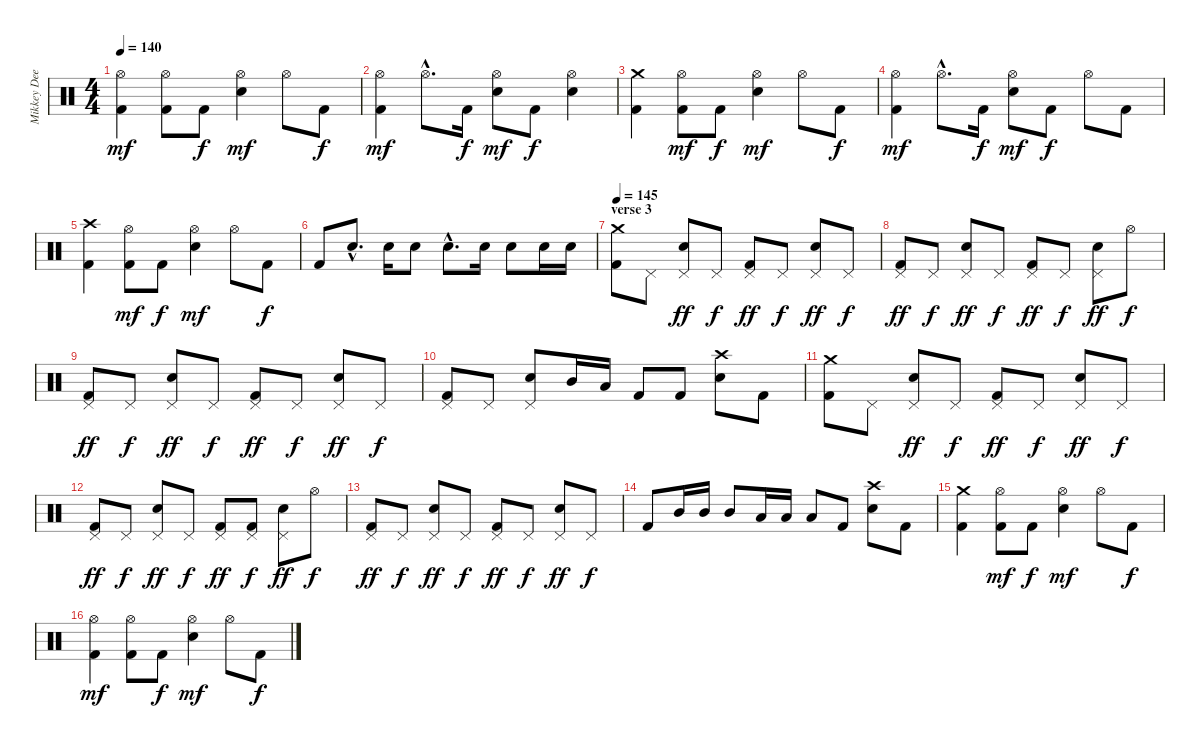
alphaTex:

\track ("Mikkey Dee" "Mikkey Dee") {instrument percussion}
\staff {score}
\articulation defaults
\ts (4 4)
\tempo 140
\clef neutral
\ks c
("Kick (hit) 2" "Hi-Hat (open)").4{dy mf} ("Kick (hit) 2" "Hi-Hat (open)").8 "Kick (hit) 2".8{dy f} ("Hi-Hat (open)" "Snare (hit) 2").4{dy mf} "Hi-Hat (open)".8 "Kick (hit) 2".8{dy f} |
("Kick (hit) 2" "Hi-Hat (open)").4{dy mf} "Hi-Hat (open)"{hac}.8{d} "Kick (hit) 2".16{dy f} ("Hi-Hat (open)" "Snare (hit) 2").8{dy mf} "Kick (hit) 2".8{dy f} ("Hi-Hat (open)" "Snare (hit) 2").4 |
("Kick (hit) 2" "Crash medium (hit)").4 ("Kick (hit) 2" "Hi-Hat (open)").8{dy mf} "Kick (hit) 2".8{dy f} ("Hi-Hat (open)" "Snare (hit) 2").4{dy mf} "Hi-Hat (open)".8 "Kick (hit) 2".8{dy f} |
("Kick (hit) 2" "Hi-Hat (open)").4{dy mf} "Hi-Hat (open)"{hac}.8{d} "Kick (hit) 2".16{dy f} ("Hi-Hat (open)" "Snare (hit) 2").8{dy mf} "Kick (hit) 2".8{dy f} "Hi-Hat (open)".8 "Kick (hit) 2".8 |
("Kick (hit) 2" "Crash high (hit)").4 ("Kick (hit) 2" "Hi-Hat (open)").8{dy mf} "Kick (hit) 2".8{dy f} ("Hi-Hat (open)" "Snare (hit) 2").4{dy mf} "Hi-Hat (open)".8 "Kick (hit) 2".8{dy f} |
"Kick (hit) 2".8 "Snare (hit) 2"{hac}.8{d} "Snare (hit) 2".16 "Snare (hit) 2".8 "Snare (hit) 2"{hac}.8{d} "Snare (hit) 2".16 "Snare (hit) 2".8 "Snare (hit) 2".16 "Snare (hit) 2".16 |
\section ("" "verse 3")
\tempo 145
("Kick (hit) 2" "Crash medium (hit)").8 "Pedal Hi-Hat (hit)".8 ("Pedal Hi-Hat (hit)" "Snare (hit) 2").8{dy ff} "Pedal Hi-Hat (hit)".8{dy f} ("Kick (hit) 2" "Pedal Hi-Hat (hit)").8{dy ff} "Pedal Hi-Hat (hit)".8{dy f} ("Pedal Hi-Hat (hit)" "Snare (hit) 2").8{dy ff} "Pedal Hi-Hat (hit)".8{dy f} |
("Kick (hit) 2" "Pedal Hi-Hat (hit)").8{dy ff} "Pedal Hi-Hat (hit)".8{dy f} ("Pedal Hi-Hat (hit)" "Snare (hit) 2").8{dy ff} "Pedal Hi-Hat (hit)".8{dy f} ("Kick (hit) 2" "Pedal Hi-Hat (hit)").8{dy ff} "Pedal Hi-Hat (hit)".8{dy f} ("Pedal Hi-Hat (hit)" "Snare (hit) 2").8{dy ff} "Hi-Hat (open)".8{dy f} |
("Kick (hit) 2" "Pedal Hi-Hat (hit)").8{dy ff} "Pedal Hi-Hat (hit)".8{dy f} ("Pedal Hi-Hat (hit)" "Snare (hit) 2").8{dy ff} "Pedal Hi-Hat (hit)".8{dy f} ("Kick (hit) 2" "Pedal Hi-Hat (hit)").8{dy ff} "Pedal Hi-Hat (hit)".8{dy f} ("Pedal Hi-Hat (hit)" "Snare (hit) 2").8{dy ff} "Pedal Hi-Hat (hit)".8{dy f} |
("Kick (hit) 2" "Pedal Hi-Hat (hit)").8 "Pedal Hi-Hat (hit)".8 ("Pedal Hi-Hat (hit)" "Snare (hit) 2").8 "Mid Tom (hit)".16 "Low Tom (hit)".16 "Kick (hit) 2".8 "Kick (hit) 2".8 ("Crash high (hit)" "Snare (hit) 2").8 "Kick (hit) 2".8 |
("Kick (hit) 2" "Crash medium (hit)").8 "Pedal Hi-Hat (hit)".8 ("Pedal Hi-Hat (hit)" "Snare (hit) 2").8{dy ff} "Pedal Hi-Hat (hit)".8{dy f} ("Kick (hit) 2" "Pedal Hi-Hat (hit)").8{dy ff} "Pedal Hi-Hat (hit)".8{dy f} ("Pedal Hi-Hat (hit)" "Snare (hit) 2").8{dy ff} "Pedal Hi-Hat (hit)".8{dy f} |
("Kick (hit) 2" "Pedal Hi-Hat (hit)").8{dy ff} "Pedal Hi-Hat (hit)".8{dy f} ("Pedal Hi-Hat (hit)" "Snare (hit) 2").8{dy ff} "Pedal Hi-Hat (hit)".8{dy f} ("Kick (hit) 2" "Pedal Hi-Hat (hit)").8{dy ff} ("Kick (hit) 2" "Pedal Hi-Hat (hit)").8{dy f} ("Pedal Hi-Hat (hit)" "Snare (hit) 2").8{dy ff} "Hi-Hat (open)".8{dy f} |
("Kick (hit) 2" "Pedal Hi-Hat (hit)").8{dy ff} "Pedal Hi-Hat (hit)".8{dy f} ("Pedal Hi-Hat (hit)" "Snare (hit) 2").8{dy ff} "Pedal Hi-Hat (hit)".8{dy f} ("Kick (hit) 2" "Pedal Hi-Hat (hit)").8{dy ff} "Pedal Hi-Hat (hit)".8{dy f} ("Pedal Hi-Hat (hit)" "Snare (hit) 2").8{dy ff} "Pedal Hi-Hat (hit)".8{dy f} |
"Kick (hit) 2".8 "Mid Tom (hit)".16 "Mid Tom (hit)".16 "Mid Tom (hit)".8 "Low Tom (hit)".16 "Low Tom (hit)".16 "Low Tom (hit)".8 "Kick (hit) 2".8 ("Crash high (hit)" "Snare (hit) 2").8 "Kick (hit) 2".8 |
("Kick (hit) 2" "Crash medium (hit)").4 ("Kick (hit) 2" "Hi-Hat (open)").8{dy mf} "Kick (hit) 2".8{dy f} ("Hi-Hat (open)" "Snare (hit) 2").4{dy mf} "Hi-Hat (open)".8 "Kick (hit) 2".8{dy f} |
("Kick (hit) 2" "Hi-Hat (open)").4{dy mf} ("Kick (hit) 2" "Hi-Hat (open)").8 "Kick (hit) 2".8{dy f} ("Hi-Hat (open)" "Snare (hit) 2").4{dy mf} "Hi-Hat (open)".8 "Kick (hit) 2".8{dy f}
